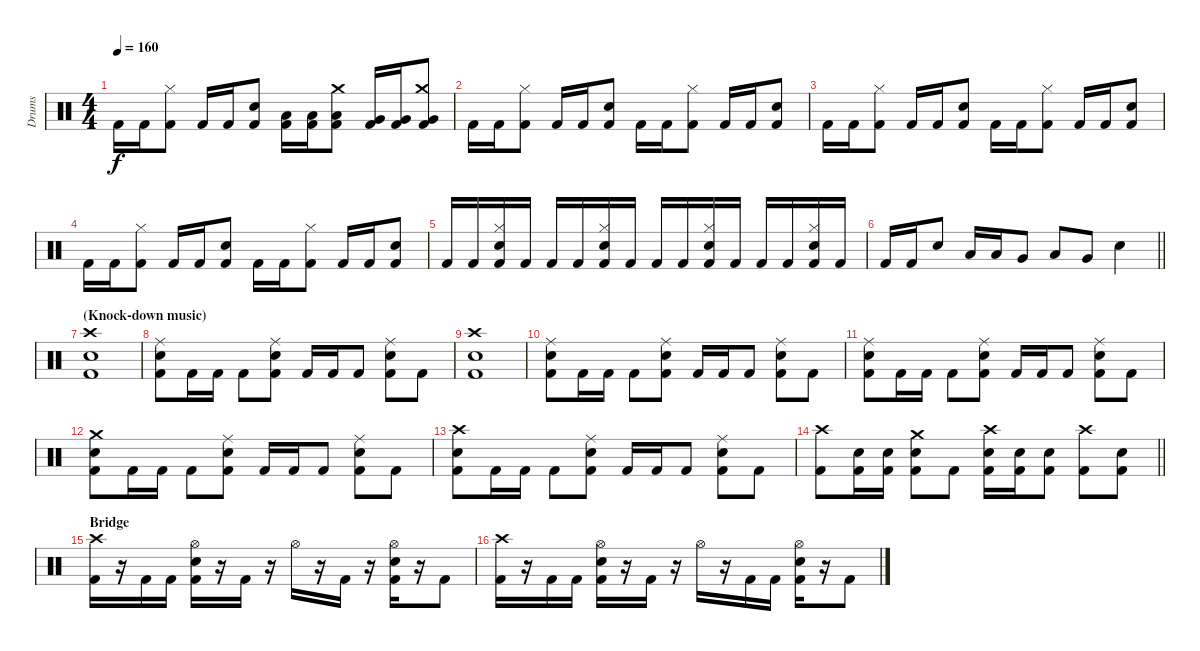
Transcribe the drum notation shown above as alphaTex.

\track ("Drums" "Drums") {instrument percussion}
\staff {score}
\articulation defaults
\ts (4 4)
\tempo 160
\clef neutral
\ks c "Kick (hit) 2".16{dy f} "Kick (hit) 2".16
("Hi-Hat (closed)" "Kick (hit) 2").8 "Kick (hit) 2".16 "Kick (hit) 2".16 ("Electric Snare (hit)" "Kick (hit) 2").8 ("Low Tom (hit)" "Kick (hit) 2").16 ("Low Tom (hit)" "Kick (hit) 2").16 ("Crash medium (hit)" "Low Tom (hit)" "Kick (hit) 2").8 ("Very Low Tom (hit)" "Kick (hit) 2").16 ("Very Low Tom (hit)" "Kick (hit) 2").16 ("Crash medium (hit)" "Very Low Tom (hit)" "Kick (hit) 2").8 |
"Kick (hit) 2".16 "Kick (hit) 2".16 ("Hi-Hat (closed)" "Kick (hit) 2").8 "Kick (hit) 2".16 "Kick (hit) 2".16 ("Electric Snare (hit)" "Kick (hit) 2").8 "Kick (hit) 2".16 "Kick (hit) 2".16 ("Hi-Hat (closed)" "Kick (hit) 2").8 "Kick (hit) 2".16 "Kick (hit) 2".16 ("Electric Snare (hit)" "Kick (hit) 2").8 |
"Kick (hit) 2".16 "Kick (hit) 2".16 ("Hi-Hat (closed)" "Kick (hit) 2").8 "Kick (hit) 2".16 "Kick (hit) 2".16 ("Electric Snare (hit)" "Kick (hit) 2").8 "Kick (hit) 2".16 "Kick (hit) 2".16 ("Hi-Hat (closed)" "Kick (hit) 2").8 "Kick (hit) 2".16 "Kick (hit) 2".16 ("Electric Snare (hit)" "Kick (hit) 2").8 |
"Kick (hit) 2".16 "Kick (hit) 2".16 ("Hi-Hat (closed)" "Kick (hit) 2").8 "Kick (hit) 2".16 "Kick (hit) 2".16 ("Electric Snare (hit)" "Kick (hit) 2").8 "Kick (hit) 2".16 "Kick (hit) 2".16 ("Hi-Hat (closed)" "Kick (hit) 2").8 "Kick (hit) 2".16 "Kick (hit) 2".16 ("Electric Snare (hit)" "Kick (hit) 2").8 |
"Kick (hit) 2".16 "Kick (hit) 2".16 ("Hi-Hat (closed)" "Electric Snare (hit)" "Kick (hit) 2").16 "Kick (hit) 2".16 "Kick (hit) 2".16 "Kick (hit) 2".16 ("Hi-Hat (closed)" "Electric Snare (hit)" "Kick (hit) 2").16 "Kick (hit) 2".16 "Kick (hit) 2".16 "Kick (hit) 2".16 ("Hi-Hat (closed)" "Electric Snare (hit)" "Kick (hit) 2").16 "Kick (hit) 2".16 "Kick (hit) 2".16 "Kick (hit) 2".16 ("Hi-Hat (closed)" "Electric Snare (hit)" "Kick (hit) 2").16 "Kick (hit) 2".16 |
\barLineRight lightlight "Kick (hit) 2".16 "Kick (hit) 2".16 "Electric Snare (hit)".8 "Low Tom (hit)".16 "Low Tom (hit)".16 "Very Low Tom (hit)".8 "Low Floor Tom (hit)".8 "Very Low Tom (hit)".8 "Electric Snare (hit)".4
|
\section ("" "(Knock-down music)")
("Crash high (hit)" "Electric Snare (hit)" "Kick (hit) 2").1 |
("Ride (middle)" "Electric Snare (hit)" "Kick (hit) 2").8 "Kick (hit) 2".16 "Kick (hit) 2".16 "Kick (hit) 2".8 ("Ride (middle)" "Electric Snare (hit)" "Kick (hit) 2").8 "Kick (hit) 2".16 "Kick (hit) 2".16 "Kick (hit) 2".8 ("Ride (middle)" "Electric Snare (hit)" "Kick (hit) 2").8 "Kick (hit) 2".8 |
("Crash high (hit)" "Electric Snare (hit)" "Kick (hit) 2").1 |
("Ride (middle)" "Electric Snare (hit)" "Kick (hit) 2").8 "Kick (hit) 2".16 "Kick (hit) 2".16 "Kick (hit) 2".8 ("Ride (middle)" "Electric Snare (hit)" "Kick (hit) 2").8 "Kick (hit) 2".16 "Kick (hit) 2".16 "Kick (hit) 2".8 ("Ride (middle)" "Electric Snare (hit)" "Kick (hit) 2").8 "Kick (hit) 2".8 |
("Ride (middle)" "Electric Snare (hit)" "Kick (hit) 2").8 "Kick (hit) 2".16 "Kick (hit) 2".16 "Kick (hit) 2".8 ("Ride (middle)" "Electric Snare (hit)" "Kick (hit) 2").8 "Kick (hit) 2".16 "Kick (hit) 2".16 "Kick (hit) 2".8 ("Ride (middle)" "Electric Snare (hit)" "Kick (hit) 2").8 "Kick (hit) 2".8 |
("Crash medium (hit)" "Electric Snare (hit)" "Kick (hit) 2").8 "Kick (hit) 2".16 "Kick (hit) 2".16 "Kick (hit) 2".8 ("Ride (middle)" "Electric Snare (hit)" "Kick (hit) 2").8 "Kick (hit) 2".16 "Kick (hit) 2".16 "Kick (hit) 2".8 ("Ride (middle)" "Electric Snare (hit)" "Kick (hit) 2").8 "Kick (hit) 2".8 |
("Crash high (hit)" "Electric Snare (hit)" "Kick (hit) 2").8 "Kick (hit) 2".16 "Kick (hit) 2".16 "Kick (hit) 2".8 ("Ride (middle)" "Electric Snare (hit)" "Kick (hit) 2").8 "Kick (hit) 2".16 "Kick (hit) 2".16 "Kick (hit) 2".8 ("Ride (middle)" "Electric Snare (hit)" "Kick (hit) 2").8 "Kick (hit) 2".8 |
\barLineRight lightlight
("Crash high (hit)" "Kick (hit) 2").8 ("Electric Snare (hit)" "Kick (hit) 2").16 ("Electric Snare (hit)" "Kick (hit) 2").16 ("Crash medium (hit)" "Electric Snare (hit)" "Kick (hit) 2").8 "Kick (hit) 2".8 ("Crash high (hit)" "Electric Snare (hit)" "Kick (hit) 2").16 ("Electric Snare (hit)" "Kick (hit) 2").16 ("Electric Snare (hit)" "Kick (hit) 2").8 ("Crash high (hit)" "Kick (hit) 2").8 ("Electric Snare (hit)" "Kick (hit) 2").8 |
\section ("" "Bridge")
("Crash high (hit)" "Kick (hit) 2").16 r.16 "Kick (hit) 2".16 "Kick (hit) 2".16 ("Hi-Hat (open)" "Electric Snare (hit)" "Kick (hit) 2").16 r.16 "Kick (hit) 2".16 r.16 "Hi-Hat (open)".16 r.16 "Kick (hit) 2".16 r.16 ("Hi-Hat (open)" "Electric Snare (hit)" "Kick (hit) 2").16 r.16 "Kick (hit) 2".8 |
("Crash high (hit)" "Kick (hit) 2").16 r.16 "Kick (hit) 2".16 "Kick (hit) 2".16 ("Hi-Hat (open)" "Electric Snare (hit)" "Kick (hit) 2").16 r.16 "Kick (hit) 2".16 r.16 "Hi-Hat (open)".16 r.16 "Kick (hit) 2".16 "Kick (hit) 2".16 ("Hi-Hat (open)" "Electric Snare (hit)" "Kick (hit) 2").16 r.16 "Kick (hit) 2".8
